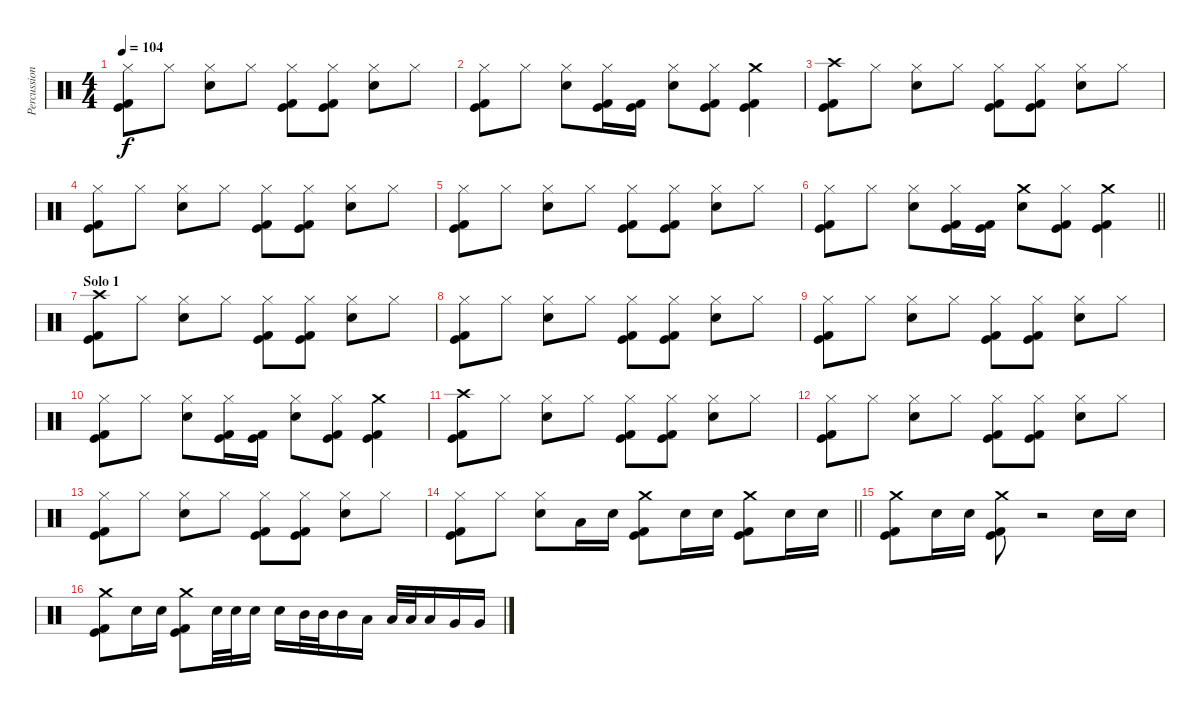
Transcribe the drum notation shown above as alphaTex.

\track ("Percussion" "Percussion") {instrument percussion}
\staff {score}
\articulation defaults
\ts (4 4)
\tempo 104
\clef neutral
\ks c
("Hi-Hat (closed)" "Kick (hit)" "Kick (hit) 2").8{dy f} "Hi-Hat (closed)".8 ("Hi-Hat (closed)" "Electric Snare (hit)").8 "Hi-Hat (closed)".8 ("Hi-Hat (closed)" "Kick (hit)" "Kick (hit) 2").8 ("Hi-Hat (closed)" "Kick (hit)" "Kick (hit) 2").8 ("Hi-Hat (closed)" "Electric Snare (hit)").8 "Hi-Hat (closed)".8 |
("Hi-Hat (closed)" "Kick (hit)" "Kick (hit) 2").8 "Hi-Hat (closed)".8 ("Hi-Hat (closed)" "Electric Snare (hit)").8 ("Hi-Hat (closed)" "Kick (hit)" "Kick (hit) 2").16 ("Kick (hit)" "Kick (hit) 2").16 ("Hi-Hat (closed)" "Electric Snare (hit)").8 ("Hi-Hat (closed)" "Kick (hit)" "Kick (hit) 2").8 ("Crash medium (hit)" "Kick (hit)" "Kick (hit) 2").4 |
("Crash high (hit)" "Kick (hit)" "Kick (hit) 2").8 "Hi-Hat (closed)".8 ("Hi-Hat (closed)" "Electric Snare (hit)").8 "Hi-Hat (closed)".8 ("Hi-Hat (closed)" "Kick (hit)" "Kick (hit) 2").8 ("Hi-Hat (closed)" "Kick (hit)" "Kick (hit) 2").8 ("Hi-Hat (closed)" "Electric Snare (hit)").8 "Hi-Hat (closed)".8 |
("Hi-Hat (closed)" "Kick (hit)" "Kick (hit) 2").8 "Hi-Hat (closed)".8 ("Hi-Hat (closed)" "Electric Snare (hit)").8 "Hi-Hat (closed)".8 ("Hi-Hat (closed)" "Kick (hit)" "Kick (hit) 2").8 ("Hi-Hat (closed)" "Kick (hit)" "Kick (hit) 2").8 ("Hi-Hat (closed)" "Electric Snare (hit)").8 "Hi-Hat (closed)".8 |
("Hi-Hat (closed)" "Kick (hit)" "Kick (hit) 2").8 "Hi-Hat (closed)".8 ("Hi-Hat (closed)" "Electric Snare (hit)").8 "Hi-Hat (closed)".8 ("Hi-Hat (closed)" "Kick (hit)" "Kick (hit) 2").8 ("Hi-Hat (closed)" "Kick (hit)" "Kick (hit) 2").8 ("Hi-Hat (closed)" "Electric Snare (hit)").8 "Hi-Hat (closed)".8 |
\barLineRight lightlight
("Hi-Hat (closed)" "Kick (hit)" "Kick (hit) 2").8 "Hi-Hat (closed)".8 ("Hi-Hat (closed)" "Electric Snare (hit)").8 ("Hi-Hat (closed)" "Kick (hit)" "Kick (hit) 2").16 ("Kick (hit)" "Kick (hit) 2").16 ("Crash medium (hit)" "Electric Snare (hit)").8 ("Hi-Hat (closed)" "Kick (hit)" "Kick (hit) 2").8 ("Crash medium (hit)" "Kick (hit)" "Kick (hit) 2").4 |
\section ("" "Solo 1")
("Crash high (hit)" "Kick (hit)" "Kick (hit) 2").8 "Hi-Hat (closed)".8 ("Hi-Hat (closed)" "Electric Snare (hit)").8 "Hi-Hat (closed)".8 ("Hi-Hat (closed)" "Kick (hit)" "Kick (hit) 2").8 ("Hi-Hat (closed)" "Kick (hit)" "Kick (hit) 2").8 ("Hi-Hat (closed)" "Electric Snare (hit)").8 "Hi-Hat (closed)".8 |
("Hi-Hat (closed)" "Kick (hit)" "Kick (hit) 2").8 "Hi-Hat (closed)".8 ("Hi-Hat (closed)" "Electric Snare (hit)").8 "Hi-Hat (closed)".8 ("Hi-Hat (closed)" "Kick (hit)" "Kick (hit) 2").8 ("Hi-Hat (closed)" "Kick (hit)" "Kick (hit) 2").8 ("Hi-Hat (closed)" "Electric Snare (hit)").8 "Hi-Hat (closed)".8 |
("Hi-Hat (closed)" "Kick (hit)" "Kick (hit) 2").8 "Hi-Hat (closed)".8 ("Hi-Hat (closed)" "Electric Snare (hit)").8 "Hi-Hat (closed)".8 ("Hi-Hat (closed)" "Kick (hit)" "Kick (hit) 2").8 ("Hi-Hat (closed)" "Kick (hit)" "Kick (hit) 2").8 ("Hi-Hat (closed)" "Electric Snare (hit)").8 "Hi-Hat (closed)".8 |
("Hi-Hat (closed)" "Kick (hit)" "Kick (hit) 2").8 "Hi-Hat (closed)".8 ("Hi-Hat (closed)" "Electric Snare (hit)").8 ("Hi-Hat (closed)" "Kick (hit)" "Kick (hit) 2").16 ("Kick (hit)" "Kick (hit) 2").16 ("Hi-Hat (closed)" "Electric Snare (hit)").8 ("Hi-Hat (closed)" "Kick (hit)" "Kick (hit) 2").8 ("Crash medium (hit)" "Kick (hit)" "Kick (hit) 2").4 |
("Crash high (hit)" "Kick (hit)" "Kick (hit) 2").8 "Hi-Hat (closed)".8 ("Hi-Hat (closed)" "Electric Snare (hit)").8 "Hi-Hat (closed)".8 ("Hi-Hat (closed)" "Kick (hit)" "Kick (hit) 2").8 ("Hi-Hat (closed)" "Kick (hit)" "Kick (hit) 2").8 ("Hi-Hat (closed)" "Electric Snare (hit)").8 "Hi-Hat (closed)".8 |
("Hi-Hat (closed)" "Kick (hit)" "Kick (hit) 2").8 "Hi-Hat (closed)".8 ("Hi-Hat (closed)" "Electric Snare (hit)").8 "Hi-Hat (closed)".8 ("Hi-Hat (closed)" "Kick (hit)" "Kick (hit) 2").8 ("Hi-Hat (closed)" "Kick (hit)" "Kick (hit) 2").8 ("Hi-Hat (closed)" "Electric Snare (hit)").8 "Hi-Hat (closed)".8 |
("Hi-Hat (closed)" "Kick (hit)" "Kick (hit) 2").8 "Hi-Hat (closed)".8 ("Hi-Hat (closed)" "Electric Snare (hit)").8 "Hi-Hat (closed)".8 ("Hi-Hat (closed)" "Kick (hit)" "Kick (hit) 2").8 ("Hi-Hat (closed)" "Kick (hit)" "Kick (hit) 2").8 ("Hi-Hat (closed)" "Electric Snare (hit)").8 "Hi-Hat (closed)".8 |
\barLineRight lightlight
("Hi-Hat (closed)" "Kick (hit)" "Kick (hit) 2").8 "Hi-Hat (closed)".8 ("Hi-Hat (closed)" "Electric Snare (hit)").8 "Low Tom (hit)".16 "Electric Snare (hit)".16 ("Crash medium (hit)" "Kick (hit)" "Kick (hit) 2").8 "Electric Snare (hit)".16 "Electric Snare (hit)".16 ("Crash medium (hit)" "Kick (hit)" "Kick (hit) 2").8 "Electric Snare (hit)".16 "Electric Snare (hit)".16 |
("Crash medium (hit)" "Kick (hit)" "Kick (hit) 2").8 "Electric Snare (hit)".16 "Electric Snare (hit)".16 ("Crash medium (hit)" "Kick (hit)" "Kick (hit) 2").8 r.2 "Electric Snare (hit)".16 "Electric Snare (hit)".16 |
("Crash medium (hit)" "Kick (hit)" "Kick (hit) 2").8 "Electric Snare (hit)".16 "Electric Snare (hit)".16 ("Crash medium (hit)" "Kick (hit)" "Kick (hit) 2").8 "Electric Snare (hit)".32 "Electric Snare (hit)".32 "Electric Snare (hit)".16 "Electric Snare (hit)".16 "Mid Tom (hit)".32 "Mid Tom (hit)".32 "Mid Tom (hit)".16 "Low Tom (hit)".16 "Low Tom (hit)".32 "Low Tom (hit)".32 "Low Tom (hit)".16 "Very Low Tom (hit)".16 "Very Low Tom (hit)".16
